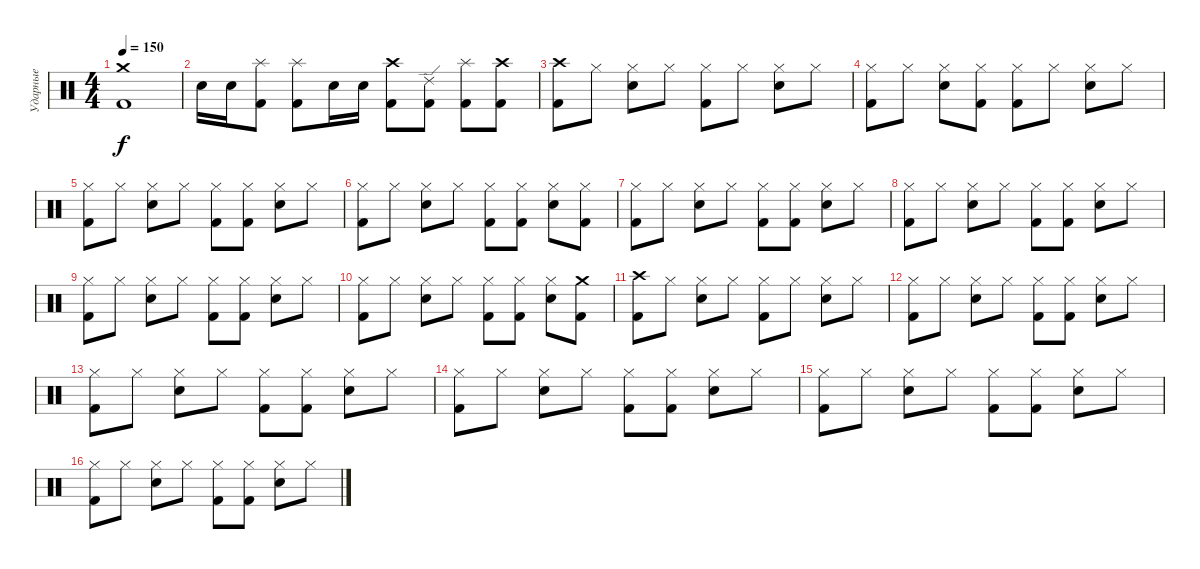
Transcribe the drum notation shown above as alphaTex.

\track ("Ударные" "Ударные") {instrument percussion}
\staff {score}
\articulation defaults
\ts (4 4)
\tempo 150
\clef neutral
\ks c
("Crash medium (hit)" "Kick (hit) 2").1{dy f} |
"Snare (hit) 2".16 "Snare (hit) 2".16 ("Splash (hit)" "Kick (hit) 2").8 ("Splash (hit)" "Kick (hit) 2").8 "Snare (hit) 2".16 "Snare (hit) 2".16 ("Crash high (hit)" "Kick (hit) 2").8 ("Ride (edge) 2" "Kick (hit) 2").8 ("Splash (hit)" "Kick (hit) 2").8 ("Crash high (hit)" "Kick (hit) 2").8 |
("Crash high (hit)" "Kick (hit) 2").8 "Hi-Hat (closed)".8 ("Hi-Hat (closed)" "Snare (hit) 2").8 "Hi-Hat (closed)".8 ("Hi-Hat (closed)" "Kick (hit) 2").8 "Hi-Hat (closed)".8 ("Hi-Hat (closed)" "Snare (hit) 2").8 "Hi-Hat (closed)".8 |
("Hi-Hat (closed)" "Kick (hit) 2").8 "Hi-Hat (closed)".8 ("Hi-Hat (closed)" "Snare (hit) 2").8 ("Hi-Hat (closed)" "Kick (hit) 2").8 ("Hi-Hat (closed)" "Kick (hit) 2").8 "Hi-Hat (closed)".8 ("Hi-Hat (closed)" "Snare (hit) 2").8 "Hi-Hat (closed)".8 |
("Hi-Hat (closed)" "Kick (hit) 2").8 "Hi-Hat (closed)".8 ("Hi-Hat (closed)" "Snare (hit) 2").8 "Hi-Hat (closed)".8 ("Hi-Hat (closed)" "Kick (hit) 2").8 ("Hi-Hat (closed)" "Kick (hit) 2").8 ("Hi-Hat (closed)" "Snare (hit) 2").8 "Hi-Hat (closed)".8 |
("Hi-Hat (closed)" "Kick (hit) 2").8 "Hi-Hat (closed)".8 ("Hi-Hat (closed)" "Snare (hit) 2").8 "Hi-Hat (closed)".8 ("Hi-Hat (closed)" "Kick (hit) 2").8 ("Hi-Hat (closed)" "Kick (hit) 2").8 ("Hi-Hat (closed)" "Snare (hit) 2").8 ("Hi-Hat (closed)" "Kick (hit) 2").8 |
("Hi-Hat (closed)" "Kick (hit) 2").8 "Hi-Hat (closed)".8 ("Hi-Hat (closed)" "Snare (hit) 2").8 "Hi-Hat (closed)".8 ("Hi-Hat (closed)" "Kick (hit) 2").8 ("Hi-Hat (closed)" "Kick (hit) 2").8 ("Hi-Hat (closed)" "Snare (hit) 2").8 "Hi-Hat (closed)".8 |
("Hi-Hat (closed)" "Kick (hit) 2").8 "Hi-Hat (closed)".8 ("Hi-Hat (closed)" "Snare (hit) 2").8 "Hi-Hat (closed)".8 ("Hi-Hat (closed)" "Kick (hit) 2").8 ("Hi-Hat (closed)" "Kick (hit) 2").8 ("Hi-Hat (closed)" "Snare (hit) 2").8 "Hi-Hat (closed)".8 |
("Hi-Hat (closed)" "Kick (hit) 2").8 "Hi-Hat (closed)".8 ("Hi-Hat (closed)" "Snare (hit) 2").8 "Hi-Hat (closed)".8 ("Hi-Hat (closed)" "Kick (hit) 2").8 ("Hi-Hat (closed)" "Kick (hit) 2").8 ("Hi-Hat (closed)" "Snare (hit) 2").8 "Hi-Hat (closed)".8 |
("Hi-Hat (closed)" "Kick (hit) 2").8 "Hi-Hat (closed)".8 ("Hi-Hat (closed)" "Snare (hit) 2").8 "Hi-Hat (closed)".8 ("Hi-Hat (closed)" "Kick (hit) 2").8 ("Hi-Hat (closed)" "Kick (hit) 2").8 ("Hi-Hat (closed)" "Snare (hit) 2").8 ("Crash medium (hit)" "Kick (hit) 2").8 |
("Crash high (hit)" "Kick (hit) 2").8 "Hi-Hat (closed)".8 ("Hi-Hat (closed)" "Snare (hit) 2").8 "Hi-Hat (closed)".8 ("Hi-Hat (closed)" "Kick (hit) 2").8 "Hi-Hat (closed)".8 ("Hi-Hat (closed)" "Snare (hit) 2").8 "Hi-Hat (closed)".8 |
("Hi-Hat (closed)" "Kick (hit) 2").8 "Hi-Hat (closed)".8 ("Hi-Hat (closed)" "Snare (hit) 2").8 "Hi-Hat (closed)".8 ("Hi-Hat (closed)" "Kick (hit) 2").8 ("Hi-Hat (closed)" "Kick (hit) 2").8 ("Hi-Hat (closed)" "Snare (hit) 2").8 "Hi-Hat (closed)".8 |
("Hi-Hat (closed)" "Kick (hit) 2").8 "Hi-Hat (closed)".8 ("Hi-Hat (closed)" "Snare (hit) 2").8 "Hi-Hat (closed)".8 ("Hi-Hat (closed)" "Kick (hit) 2").8 ("Hi-Hat (closed)" "Kick (hit) 2").8 ("Hi-Hat (closed)" "Snare (hit) 2").8 "Hi-Hat (closed)".8 |
("Hi-Hat (closed)" "Kick (hit) 2").8 "Hi-Hat (closed)".8 ("Hi-Hat (closed)" "Snare (hit) 2").8 "Hi-Hat (closed)".8 ("Hi-Hat (closed)" "Kick (hit) 2").8 ("Hi-Hat (closed)" "Kick (hit) 2").8 ("Hi-Hat (closed)" "Snare (hit) 2").8 "Hi-Hat (closed)".8 |
("Hi-Hat (closed)" "Kick (hit) 2").8 "Hi-Hat (closed)".8 ("Hi-Hat (closed)" "Snare (hit) 2").8 "Hi-Hat (closed)".8 ("Hi-Hat (closed)" "Kick (hit) 2").8 ("Hi-Hat (closed)" "Kick (hit) 2").8 ("Hi-Hat (closed)" "Snare (hit) 2").8 "Hi-Hat (closed)".8 |
("Hi-Hat (closed)" "Kick (hit) 2").8 "Hi-Hat (closed)".8 ("Hi-Hat (closed)" "Snare (hit) 2").8 "Hi-Hat (closed)".8 ("Hi-Hat (closed)" "Kick (hit) 2").8 ("Hi-Hat (closed)" "Kick (hit) 2").8 ("Hi-Hat (closed)" "Snare (hit) 2").8 "Hi-Hat (closed)".8
